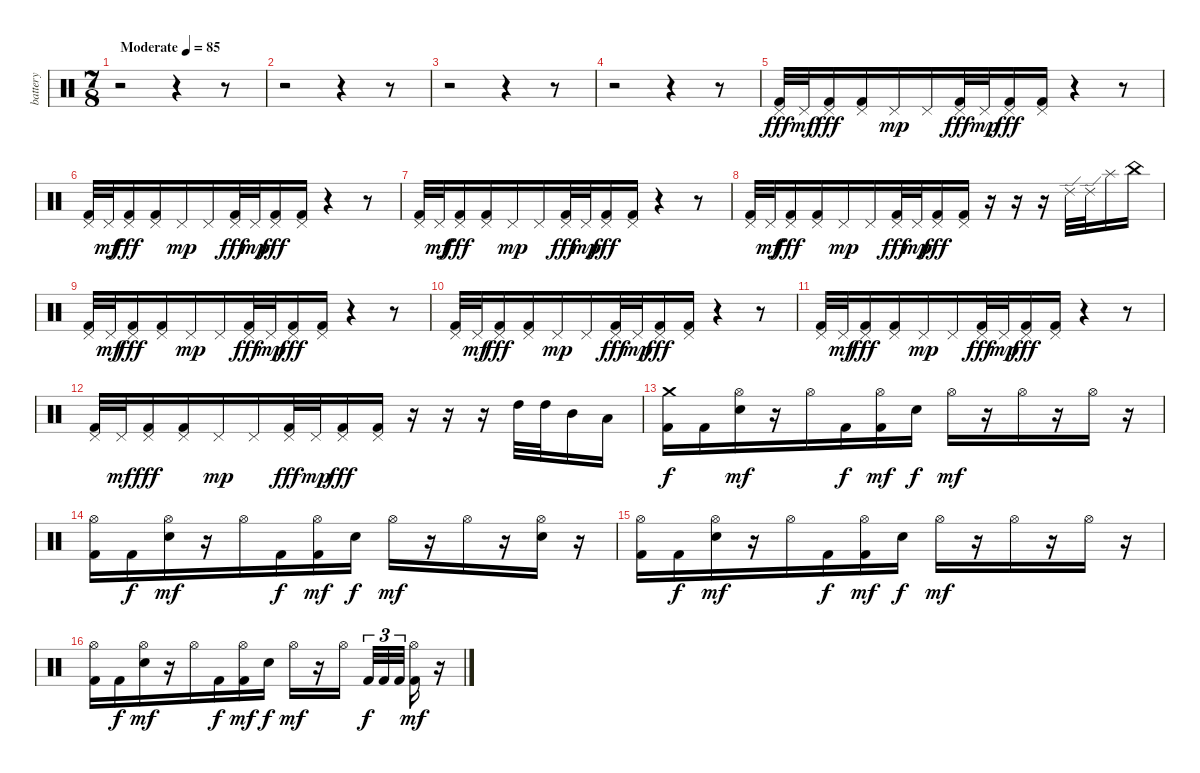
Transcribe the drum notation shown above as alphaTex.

\track ("battery" "battery") {instrument percussion}
\staff {score}
\articulation defaults
\ts (7 8)
\tempo (85 "Moderate")
\clef neutral
\ks c
r.2{dy fff} r.4 r.8 |
r.2 r.4 r.8 |
r.2 r.4 r.8 |
r.2 r.4 r.8 |
("Pedal Hi-Hat (hit)" "Kick (hit) 2").32 "Pedal Hi-Hat (hit)".32{dy mf} ("Pedal Hi-Hat (hit)" "Kick (hit) 2").16{dy fff} ("Pedal Hi-Hat (hit)" "Kick (hit) 2").16 "Pedal Hi-Hat (hit)".16{dy mp} "Pedal Hi-Hat (hit)".16 ("Pedal Hi-Hat (hit)" "Kick (hit) 2").32{dy fff} "Pedal Hi-Hat (hit)".32{dy mp} ("Pedal Hi-Hat (hit)" "Kick (hit) 2").16{dy fff} ("Pedal Hi-Hat (hit)" "Kick (hit) 2").16 r.4 r.8 |
("Pedal Hi-Hat (hit)" "Kick (hit) 2").32 "Pedal Hi-Hat (hit)".32{dy mf} ("Pedal Hi-Hat (hit)" "Kick (hit) 2").16{dy fff} ("Pedal Hi-Hat (hit)" "Kick (hit) 2").16 "Pedal Hi-Hat (hit)".16{dy mp} "Pedal Hi-Hat (hit)".16 ("Pedal Hi-Hat (hit)" "Kick (hit) 2").32{dy fff} "Pedal Hi-Hat (hit)".32{dy mp} ("Pedal Hi-Hat (hit)" "Kick (hit) 2").16{dy fff} ("Pedal Hi-Hat (hit)" "Kick (hit) 2").16 r.4 r.8 |
("Pedal Hi-Hat (hit)" "Kick (hit) 2").32 "Pedal Hi-Hat (hit)".32{dy mf} ("Pedal Hi-Hat (hit)" "Kick (hit) 2").16{dy fff} ("Pedal Hi-Hat (hit)" "Kick (hit) 2").16 "Pedal Hi-Hat (hit)".16{dy mp} "Pedal Hi-Hat (hit)".16 ("Pedal Hi-Hat (hit)" "Kick (hit) 2").32{dy fff} "Pedal Hi-Hat (hit)".32{dy mp} ("Pedal Hi-Hat (hit)" "Kick (hit) 2").16{dy fff} ("Pedal Hi-Hat (hit)" "Kick (hit) 2").16 r.4 r.8 |
("Pedal Hi-Hat (hit)" "Kick (hit) 2").32 "Pedal Hi-Hat (hit)".32{dy mf} ("Pedal Hi-Hat (hit)" "Kick (hit) 2").16{dy fff} ("Pedal Hi-Hat (hit)" "Kick (hit) 2").16 "Pedal Hi-Hat (hit)".16{dy mp} "Pedal Hi-Hat (hit)".16 ("Pedal Hi-Hat (hit)" "Kick (hit) 2").32{dy fff} "Pedal Hi-Hat (hit)".32{dy mp} ("Pedal Hi-Hat (hit)" "Kick (hit) 2").16{dy fff} ("Pedal Hi-Hat (hit)" "Kick (hit) 2").16 r.16 r.16 r.16 "Ride (edge) 2".32 "Ride (edge) 2".32 "Splash (hit)".16 "China (hit)".16 |
("Pedal Hi-Hat (hit)" "Kick (hit) 2").32 "Pedal Hi-Hat (hit)".32{dy mf} ("Pedal Hi-Hat (hit)" "Kick (hit) 2").16{dy fff} ("Pedal Hi-Hat (hit)" "Kick (hit) 2").16 "Pedal Hi-Hat (hit)".16{dy mp} "Pedal Hi-Hat (hit)".16 ("Pedal Hi-Hat (hit)" "Kick (hit) 2").32{dy fff} "Pedal Hi-Hat (hit)".32{dy mp} ("Pedal Hi-Hat (hit)" "Kick (hit) 2").16{dy fff} ("Pedal Hi-Hat (hit)" "Kick (hit) 2").16 r.4 r.8 |
("Pedal Hi-Hat (hit)" "Kick (hit) 2").32 "Pedal Hi-Hat (hit)".32{dy mf} ("Pedal Hi-Hat (hit)" "Kick (hit) 2").16{dy fff} ("Pedal Hi-Hat (hit)" "Kick (hit) 2").16 "Pedal Hi-Hat (hit)".16{dy mp} "Pedal Hi-Hat (hit)".16 ("Pedal Hi-Hat (hit)" "Kick (hit) 2").32{dy fff} "Pedal Hi-Hat (hit)".32{dy mp} ("Pedal Hi-Hat (hit)" "Kick (hit) 2").16{dy fff} ("Pedal Hi-Hat (hit)" "Kick (hit) 2").16 r.4 r.8 |
("Pedal Hi-Hat (hit)" "Kick (hit) 2").32 "Pedal Hi-Hat (hit)".32{dy mf} ("Pedal Hi-Hat (hit)" "Kick (hit) 2").16{dy fff} ("Pedal Hi-Hat (hit)" "Kick (hit) 2").16 "Pedal Hi-Hat (hit)".16{dy mp} "Pedal Hi-Hat (hit)".16 ("Pedal Hi-Hat (hit)" "Kick (hit) 2").32{dy fff} "Pedal Hi-Hat (hit)".32{dy mp} ("Pedal Hi-Hat (hit)" "Kick (hit) 2").16{dy fff} ("Pedal Hi-Hat (hit)" "Kick (hit) 2").16 r.4 r.8 |
("Pedal Hi-Hat (hit)" "Kick (hit) 2").32 "Pedal Hi-Hat (hit)".32{dy mf} ("Pedal Hi-Hat (hit)" "Kick (hit) 2").16{dy fff} ("Pedal Hi-Hat (hit)" "Kick (hit) 2").16 "Pedal Hi-Hat (hit)".16{dy mp} "Pedal Hi-Hat (hit)".16 ("Pedal Hi-Hat (hit)" "Kick (hit) 2").32{dy fff} "Pedal Hi-Hat (hit)".32{dy mp} ("Pedal Hi-Hat (hit)" "Kick (hit) 2").16{dy fff} ("Pedal Hi-Hat (hit)" "Kick (hit) 2").16 r.16 r.16 r.16 "High Tom (hit)".32 "High Tom (hit)".32 "Mid Tom (hit)".16 "Low Tom (hit)".16 |
("Crash medium (hit)" "Kick (hit) 2").16{dy f} "Kick (hit) 2".16 ("Hi-Hat (open)" "Electric Snare (hit)").16{dy mf} r.16 "Hi-Hat (open)".16 "Kick (hit) 2".16{dy f} ("Hi-Hat (open)" "Kick (hit) 2").16{dy mf} "Electric Snare (hit)".16{dy f} "Hi-Hat (open)".16{dy mf} r.16 "Hi-Hat (open)".16 r.16 "Hi-Hat (open)".16 r.16 |
("Hi-Hat (open)" "Kick (hit) 2").16 "Kick (hit) 2".16{dy f} ("Hi-Hat (open)" "Electric Snare (hit)").16{dy mf} r.16 "Hi-Hat (open)".16 "Kick (hit) 2".16{dy f} ("Hi-Hat (open)" "Kick (hit) 2").16{dy mf} "Electric Snare (hit)".16{dy f} "Hi-Hat (open)".16{dy mf} r.16 "Hi-Hat (open)".16 r.16 ("Hi-Hat (open)" "Electric Snare (hit)").16 r.16 |
("Hi-Hat (open)" "Kick (hit) 2").16 "Kick (hit) 2".16{dy f} ("Hi-Hat (open)" "Electric Snare (hit)").16{dy mf} r.16 "Hi-Hat (open)".16 "Kick (hit) 2".16{dy f} ("Hi-Hat (open)" "Kick (hit) 2").16{dy mf} "Electric Snare (hit)".16{dy f} "Hi-Hat (open)".16{dy mf} r.16 "Hi-Hat (open)".16 r.16 "Hi-Hat (open)".16 r.16 |
("Hi-Hat (open)" "Kick (hit) 2").16 "Kick (hit) 2".16{dy f} ("Hi-Hat (open)" "Electric Snare (hit)").16{dy mf} r.16 "Hi-Hat (open)".16 "Kick (hit) 2".16{dy f} ("Hi-Hat (open)" "Kick (hit) 2").16{dy mf} "Electric Snare (hit)".16{dy f} "Hi-Hat (open)".16{dy mf} r.16 "Hi-Hat (open)".16{beam splitsecondary} "Kick (hit) 2".32{tu (3 2) dy f} "Kick (hit) 2".32{tu (3 2)} "Kick (hit) 2".32{tu (3 2)} ("Hi-Hat (open)" "Kick (hit) 2").16{dy mf} r.16
